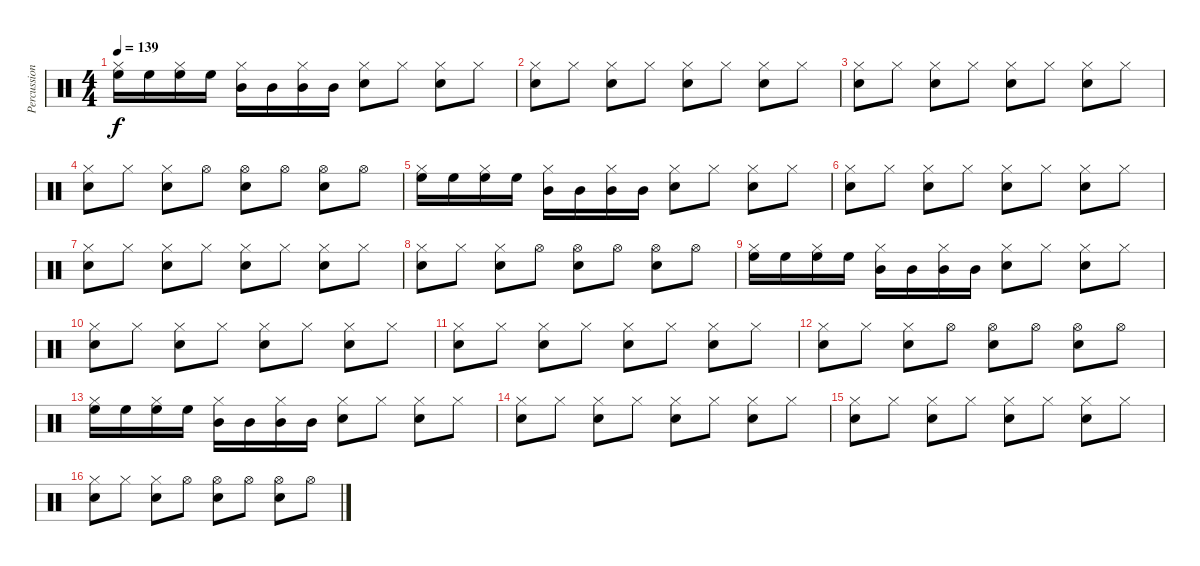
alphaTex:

\track ("Percussion" "Percussion") {instrument percussion}
\staff {score}
\articulation defaults
\ts (4 4)
\tempo 139
\clef neutral
\ks c
("High Floor Tom (hit)" "Hi-Hat (closed)").16{dy f} "High Floor Tom (hit)".16 ("High Floor Tom (hit)" "Hi-Hat (closed)").16 "High Floor Tom (hit)".16 ("Mid Tom (hit)" "Hi-Hat (closed)").16 "Mid Tom (hit)".16 ("Mid Tom (hit)" "Hi-Hat (closed)").16 "Mid Tom (hit)".16 ("Electric Snare (hit)" "Hi-Hat (closed)").8 "Hi-Hat (closed)".8 ("Electric Snare (hit)" "Hi-Hat (closed)").8 "Hi-Hat (closed)".8 |
("Electric Snare (hit)" "Hi-Hat (closed)").8 "Hi-Hat (closed)".8 ("Electric Snare (hit)" "Hi-Hat (closed)").8 "Hi-Hat (closed)".8 ("Electric Snare (hit)" "Hi-Hat (closed)").8 "Hi-Hat (closed)".8 ("Electric Snare (hit)" "Hi-Hat (closed)").8 "Hi-Hat (closed)".8 |
("Electric Snare (hit)" "Hi-Hat (closed)").8 "Hi-Hat (closed)".8 ("Electric Snare (hit)" "Hi-Hat (closed)").8 "Hi-Hat (closed)".8 ("Electric Snare (hit)" "Hi-Hat (closed)").8 "Hi-Hat (closed)".8 ("Electric Snare (hit)" "Hi-Hat (closed)").8 "Hi-Hat (closed)".8 |
("Electric Snare (hit)" "Hi-Hat (closed)").8 "Hi-Hat (closed)".8 ("Electric Snare (hit)" "Hi-Hat (closed)").8 "Hi-Hat (open)".8 ("Electric Snare (hit)" "Hi-Hat (open)").8 "Hi-Hat (open)".8 ("Electric Snare (hit)" "Hi-Hat (open)").8 "Hi-Hat (open)".8 |
("High Floor Tom (hit)" "Hi-Hat (closed)").16 "High Floor Tom (hit)".16 ("High Floor Tom (hit)" "Hi-Hat (closed)").16 "High Floor Tom (hit)".16 ("Mid Tom (hit)" "Hi-Hat (closed)").16 "Mid Tom (hit)".16 ("Mid Tom (hit)" "Hi-Hat (closed)").16 "Mid Tom (hit)".16 ("Electric Snare (hit)" "Hi-Hat (closed)").8 "Hi-Hat (closed)".8 ("Electric Snare (hit)" "Hi-Hat (closed)").8 "Hi-Hat (closed)".8 |
("Electric Snare (hit)" "Hi-Hat (closed)").8 "Hi-Hat (closed)".8 ("Electric Snare (hit)" "Hi-Hat (closed)").8 "Hi-Hat (closed)".8 ("Electric Snare (hit)" "Hi-Hat (closed)").8 "Hi-Hat (closed)".8 ("Electric Snare (hit)" "Hi-Hat (closed)").8 "Hi-Hat (closed)".8 |
("Electric Snare (hit)" "Hi-Hat (closed)").8 "Hi-Hat (closed)".8 ("Electric Snare (hit)" "Hi-Hat (closed)").8 "Hi-Hat (closed)".8 ("Electric Snare (hit)" "Hi-Hat (closed)").8 "Hi-Hat (closed)".8 ("Electric Snare (hit)" "Hi-Hat (closed)").8 "Hi-Hat (closed)".8 |
("Electric Snare (hit)" "Hi-Hat (closed)").8 "Hi-Hat (closed)".8 ("Electric Snare (hit)" "Hi-Hat (closed)").8 "Hi-Hat (open)".8 ("Electric Snare (hit)" "Hi-Hat (open)").8 "Hi-Hat (open)".8 ("Electric Snare (hit)" "Hi-Hat (open)").8 "Hi-Hat (open)".8 |
("High Floor Tom (hit)" "Hi-Hat (closed)").16 "High Floor Tom (hit)".16 ("High Floor Tom (hit)" "Hi-Hat (closed)").16 "High Floor Tom (hit)".16 ("Mid Tom (hit)" "Hi-Hat (closed)").16 "Mid Tom (hit)".16 ("Mid Tom (hit)" "Hi-Hat (closed)").16 "Mid Tom (hit)".16 ("Electric Snare (hit)" "Hi-Hat (closed)").8 "Hi-Hat (closed)".8 ("Electric Snare (hit)" "Hi-Hat (closed)").8 "Hi-Hat (closed)".8 |
("Electric Snare (hit)" "Hi-Hat (closed)").8 "Hi-Hat (closed)".8 ("Electric Snare (hit)" "Hi-Hat (closed)").8 "Hi-Hat (closed)".8 ("Electric Snare (hit)" "Hi-Hat (closed)").8 "Hi-Hat (closed)".8 ("Electric Snare (hit)" "Hi-Hat (closed)").8 "Hi-Hat (closed)".8 |
("Electric Snare (hit)" "Hi-Hat (closed)").8 "Hi-Hat (closed)".8 ("Electric Snare (hit)" "Hi-Hat (closed)").8 "Hi-Hat (closed)".8 ("Electric Snare (hit)" "Hi-Hat (closed)").8 "Hi-Hat (closed)".8 ("Electric Snare (hit)" "Hi-Hat (closed)").8 "Hi-Hat (closed)".8 |
("Electric Snare (hit)" "Hi-Hat (closed)").8 "Hi-Hat (closed)".8 ("Electric Snare (hit)" "Hi-Hat (closed)").8 "Hi-Hat (open)".8 ("Electric Snare (hit)" "Hi-Hat (open)").8 "Hi-Hat (open)".8 ("Electric Snare (hit)" "Hi-Hat (open)").8 "Hi-Hat (open)".8 |
("High Floor Tom (hit)" "Hi-Hat (closed)").16 "High Floor Tom (hit)".16 ("High Floor Tom (hit)" "Hi-Hat (closed)").16 "High Floor Tom (hit)".16 ("Mid Tom (hit)" "Hi-Hat (closed)").16 "Mid Tom (hit)".16 ("Mid Tom (hit)" "Hi-Hat (closed)").16 "Mid Tom (hit)".16 ("Electric Snare (hit)" "Hi-Hat (closed)").8 "Hi-Hat (closed)".8 ("Electric Snare (hit)" "Hi-Hat (closed)").8 "Hi-Hat (closed)".8 |
("Electric Snare (hit)" "Hi-Hat (closed)").8 "Hi-Hat (closed)".8 ("Electric Snare (hit)" "Hi-Hat (closed)").8 "Hi-Hat (closed)".8 ("Electric Snare (hit)" "Hi-Hat (closed)").8 "Hi-Hat (closed)".8 ("Electric Snare (hit)" "Hi-Hat (closed)").8 "Hi-Hat (closed)".8 |
("Electric Snare (hit)" "Hi-Hat (closed)").8 "Hi-Hat (closed)".8 ("Electric Snare (hit)" "Hi-Hat (closed)").8 "Hi-Hat (closed)".8 ("Electric Snare (hit)" "Hi-Hat (closed)").8 "Hi-Hat (closed)".8 ("Electric Snare (hit)" "Hi-Hat (closed)").8 "Hi-Hat (closed)".8 |
("Electric Snare (hit)" "Hi-Hat (closed)").8 "Hi-Hat (closed)".8 ("Electric Snare (hit)" "Hi-Hat (closed)").8 "Hi-Hat (open)".8 ("Electric Snare (hit)" "Hi-Hat (open)").8 "Hi-Hat (open)".8 ("Electric Snare (hit)" "Hi-Hat (open)").8 "Hi-Hat (open)".8
